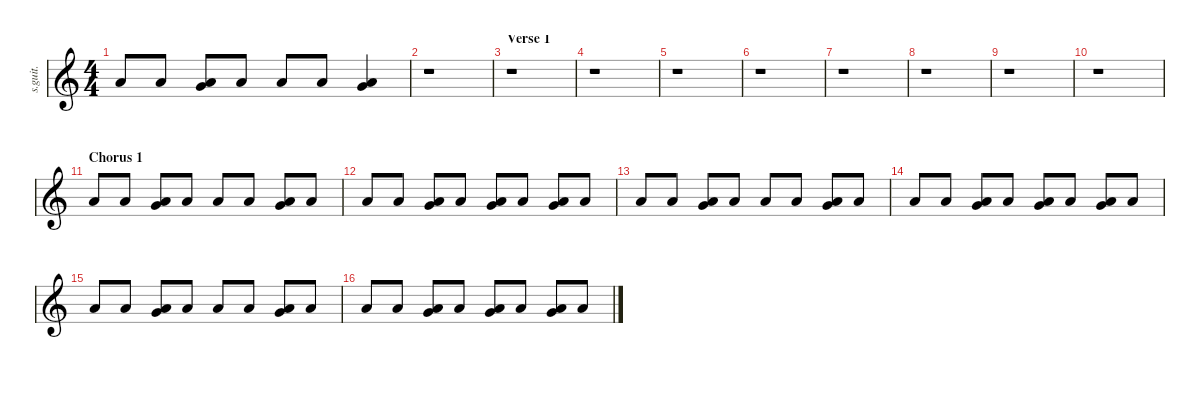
\defaultSystemsLayout 4
\hideDynamics
\bracketExtendMode nobrackets
\track ("Chris Fehn" "s.guit.") {instrument percussion}
\staff {score}
\articulation defaults
\ts (4 4)
\tempo (210 hide)
\clef g2
\ks c "Low Floor Tom (hit)".8{lyrics (0 "") lyrics (1 "") lyrics (2 "") lyrics (3 "") lyrics (4 "") dy f} "Low Floor Tom (hit)".8{lyrics (0 "") lyrics (1 "") lyrics (2 "") lyrics (3 "") lyrics (4 "")}
("Very Low Tom (hit)" "Low Floor Tom (hit)").8{lyrics (0 "") lyrics (1 "") lyrics (2 "") lyrics (3 "") lyrics (4 "")} "Low Floor Tom (hit)".8{lyrics (0 "") lyrics (1 "") lyrics (2 "") lyrics (3 "") lyrics (4 "")} "Low Floor Tom (hit)".8{lyrics (0 "") lyrics (1 "") lyrics (2 "") lyrics (3 "") lyrics (4 "")} "Low Floor Tom (hit)".8{lyrics (0 "") lyrics (1 "") lyrics (2 "") lyrics (3 "") lyrics (4 "")} ("Very Low Tom (hit)" "Low Floor Tom (hit)").4{lyrics (0 "") lyrics (1 "") lyrics (2 "") lyrics (3 "") lyrics (4 "")} |
r.1 |
\section ("" "Verse 1")
r.1 |
r.1 |
r.1 |
r.1 |
r.1 |
r.1 |
r.1 |
r.1 |
\section ("" "Chorus 1")
"Low Floor Tom (hit)".8{lyrics (0 "") lyrics (1 "") lyrics (2 "") lyrics (3 "") lyrics (4 "")} "Low Floor Tom (hit)".8{lyrics (0 "") lyrics (1 "") lyrics (2 "") lyrics (3 "") lyrics (4 "")} ("Very Low Tom (hit)" "Low Floor Tom (hit)").8{lyrics (0 "") lyrics (1 "") lyrics (2 "") lyrics (3 "") lyrics (4 "")} "Low Floor Tom (hit)".8{lyrics (0 "") lyrics (1 "") lyrics (2 "") lyrics (3 "") lyrics (4 "")} "Low Floor Tom (hit)".8{lyrics (0 "") lyrics (1 "") lyrics (2 "") lyrics (3 "") lyrics (4 "")} "Low Floor Tom (hit)".8{lyrics (0 "") lyrics (1 "") lyrics (2 "") lyrics (3 "") lyrics (4 "")} ("Very Low Tom (hit)" "Low Floor Tom (hit)").8{lyrics (0 "") lyrics (1 "") lyrics (2 "") lyrics (3 "") lyrics (4 "")} "Low Floor Tom (hit)".8{lyrics (0 "") lyrics (1 "") lyrics (2 "") lyrics (3 "") lyrics (4 "")} |
"Low Floor Tom (hit)".8{lyrics (0 "") lyrics (1 "") lyrics (2 "") lyrics (3 "") lyrics (4 "")} "Low Floor Tom (hit)".8{lyrics (0 "") lyrics (1 "") lyrics (2 "") lyrics (3 "") lyrics (4 "")} ("Very Low Tom (hit)" "Low Floor Tom (hit)").8{lyrics (0 "") lyrics (1 "") lyrics (2 "") lyrics (3 "") lyrics (4 "")} "Low Floor Tom (hit)".8{lyrics (0 "") lyrics (1 "") lyrics (2 "") lyrics (3 "") lyrics (4 "")} ("Very Low Tom (hit)" "Low Floor Tom (hit)").8{lyrics (0 "") lyrics (1 "") lyrics (2 "") lyrics (3 "") lyrics (4 "")} "Low Floor Tom (hit)".8{lyrics (0 "") lyrics (1 "") lyrics (2 "") lyrics (3 "") lyrics (4 "")} ("Very Low Tom (hit)" "Low Floor Tom (hit)").8{lyrics (0 "") lyrics (1 "") lyrics (2 "") lyrics (3 "") lyrics (4 "")} "Low Floor Tom (hit)".8{lyrics (0 "") lyrics (1 "") lyrics (2 "") lyrics (3 "") lyrics (4 "")} |
"Low Floor Tom (hit)".8{lyrics (0 "") lyrics (1 "") lyrics (2 "") lyrics (3 "") lyrics (4 "")} "Low Floor Tom (hit)".8{lyrics (0 "") lyrics (1 "") lyrics (2 "") lyrics (3 "") lyrics (4 "")} ("Very Low Tom (hit)" "Low Floor Tom (hit)").8{lyrics (0 "") lyrics (1 "") lyrics (2 "") lyrics (3 "") lyrics (4 "")} "Low Floor Tom (hit)".8{lyrics (0 "") lyrics (1 "") lyrics (2 "") lyrics (3 "") lyrics (4 "")} "Low Floor Tom (hit)".8{lyrics (0 "") lyrics (1 "") lyrics (2 "") lyrics (3 "") lyrics (4 "")} "Low Floor Tom (hit)".8{lyrics (0 "") lyrics (1 "") lyrics (2 "") lyrics (3 "") lyrics (4 "")} ("Very Low Tom (hit)" "Low Floor Tom (hit)").8{lyrics (0 "") lyrics (1 "") lyrics (2 "") lyrics (3 "") lyrics (4 "")} "Low Floor Tom (hit)".8{lyrics (0 "") lyrics (1 "") lyrics (2 "") lyrics (3 "") lyrics (4 "")} |
"Low Floor Tom (hit)".8{lyrics (0 "") lyrics (1 "") lyrics (2 "") lyrics (3 "") lyrics (4 "")} "Low Floor Tom (hit)".8{lyrics (0 "") lyrics (1 "") lyrics (2 "") lyrics (3 "") lyrics (4 "")} ("Very Low Tom (hit)" "Low Floor Tom (hit)").8{lyrics (0 "") lyrics (1 "") lyrics (2 "") lyrics (3 "") lyrics (4 "")} "Low Floor Tom (hit)".8{lyrics (0 "") lyrics (1 "") lyrics (2 "") lyrics (3 "") lyrics (4 "")} ("Very Low Tom (hit)" "Low Floor Tom (hit)").8{lyrics (0 "") lyrics (1 "") lyrics (2 "") lyrics (3 "") lyrics (4 "")} "Low Floor Tom (hit)".8{lyrics (0 "") lyrics (1 "") lyrics (2 "") lyrics (3 "") lyrics (4 "")} ("Very Low Tom (hit)" "Low Floor Tom (hit)").8{lyrics (0 "") lyrics (1 "") lyrics (2 "") lyrics (3 "") lyrics (4 "")} "Low Floor Tom (hit)".8{lyrics (0 "") lyrics (1 "") lyrics (2 "") lyrics (3 "") lyrics (4 "")} |
"Low Floor Tom (hit)".8{lyrics (0 "") lyrics (1 "") lyrics (2 "") lyrics (3 "") lyrics (4 "")} "Low Floor Tom (hit)".8{lyrics (0 "") lyrics (1 "") lyrics (2 "") lyrics (3 "") lyrics (4 "")} ("Very Low Tom (hit)" "Low Floor Tom (hit)").8{lyrics (0 "") lyrics (1 "") lyrics (2 "") lyrics (3 "") lyrics (4 "")} "Low Floor Tom (hit)".8{lyrics (0 "") lyrics (1 "") lyrics (2 "") lyrics (3 "") lyrics (4 "")} "Low Floor Tom (hit)".8{lyrics (0 "") lyrics (1 "") lyrics (2 "") lyrics (3 "") lyrics (4 "")} "Low Floor Tom (hit)".8{lyrics (0 "") lyrics (1 "") lyrics (2 "") lyrics (3 "") lyrics (4 "")} ("Very Low Tom (hit)" "Low Floor Tom (hit)").8{lyrics (0 "") lyrics (1 "") lyrics (2 "") lyrics (3 "") lyrics (4 "")} "Low Floor Tom (hit)".8{lyrics (0 "") lyrics (1 "") lyrics (2 "") lyrics (3 "") lyrics (4 "")} |
"Low Floor Tom (hit)".8{lyrics (0 "") lyrics (1 "") lyrics (2 "") lyrics (3 "") lyrics (4 "")} "Low Floor Tom (hit)".8{lyrics (0 "") lyrics (1 "") lyrics (2 "") lyrics (3 "") lyrics (4 "")} ("Very Low Tom (hit)" "Low Floor Tom (hit)").8{lyrics (0 "") lyrics (1 "") lyrics (2 "") lyrics (3 "") lyrics (4 "")} "Low Floor Tom (hit)".8{lyrics (0 "") lyrics (1 "") lyrics (2 "") lyrics (3 "") lyrics (4 "")} ("Very Low Tom (hit)" "Low Floor Tom (hit)").8{lyrics (0 "") lyrics (1 "") lyrics (2 "") lyrics (3 "") lyrics (4 "")} "Low Floor Tom (hit)".8{lyrics (0 "") lyrics (1 "") lyrics (2 "") lyrics (3 "") lyrics (4 "")} ("Very Low Tom (hit)" "Low Floor Tom (hit)").8{lyrics (0 "") lyrics (1 "") lyrics (2 "") lyrics (3 "") lyrics (4 "")} "Low Floor Tom (hit)".8{lyrics (0 "") lyrics (1 "") lyrics (2 "") lyrics (3 "") lyrics (4 "")}
